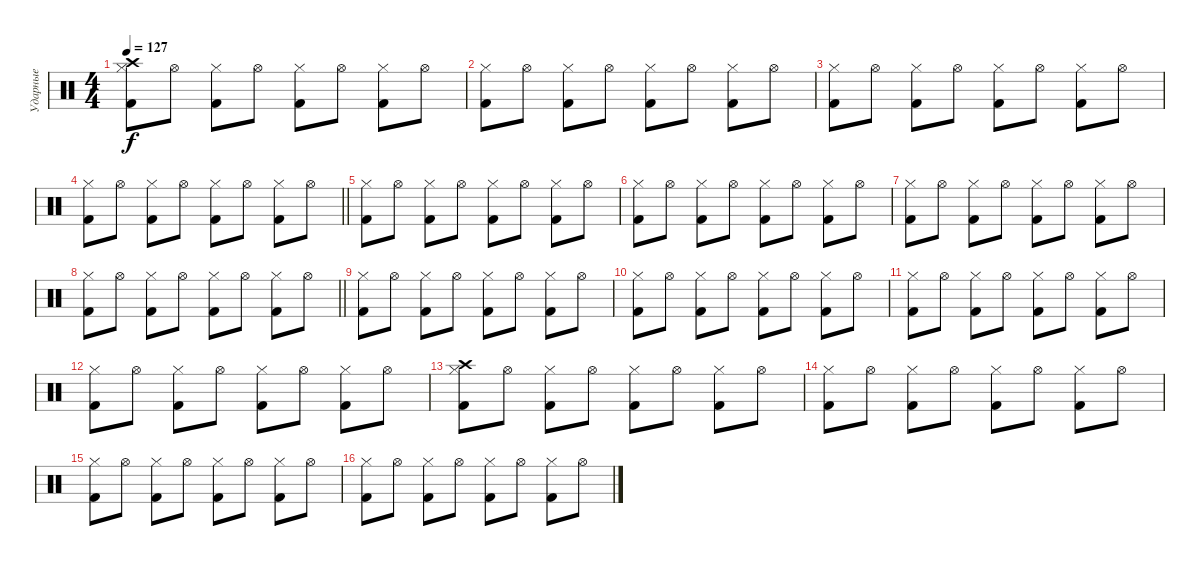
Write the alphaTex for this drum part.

\track ("Ударные" "Ударные") {instrument percussion}
\staff {score}
\articulation defaults
\ts (4 4)
\tempo 127
\clef neutral
\ks c
("Crash high (hit)" "Hi-Hat (closed)" "Kick (hit) 2").8{dy f} "Hi-Hat (open)".8 ("Hi-Hat (closed)" "Kick (hit) 2").8 "Hi-Hat (open)".8 ("Hi-Hat (closed)" "Kick (hit) 2").8 "Hi-Hat (open)".8 ("Hi-Hat (closed)" "Kick (hit) 2").8 "Hi-Hat (open)".8 |
("Hi-Hat (closed)" "Kick (hit) 2").8 "Hi-Hat (open)".8 ("Hi-Hat (closed)" "Kick (hit) 2").8 "Hi-Hat (open)".8 ("Hi-Hat (closed)" "Kick (hit) 2").8 "Hi-Hat (open)".8 ("Hi-Hat (closed)" "Kick (hit) 2").8 "Hi-Hat (open)".8 |
("Hi-Hat (closed)" "Kick (hit) 2").8 "Hi-Hat (open)".8 ("Hi-Hat (closed)" "Kick (hit) 2").8 "Hi-Hat (open)".8 ("Hi-Hat (closed)" "Kick (hit) 2").8 "Hi-Hat (open)".8 ("Hi-Hat (closed)" "Kick (hit) 2").8 "Hi-Hat (open)".8 |
\barLineRight lightlight
("Hi-Hat (closed)" "Kick (hit) 2").8 "Hi-Hat (open)".8 ("Hi-Hat (closed)" "Kick (hit) 2").8 "Hi-Hat (open)".8 ("Hi-Hat (closed)" "Kick (hit) 2").8 "Hi-Hat (open)".8 ("Hi-Hat (closed)" "Kick (hit) 2").8 "Hi-Hat (open)".8 |
("Hi-Hat (closed)" "Kick (hit) 2").8 "Hi-Hat (open)".8 ("Hi-Hat (closed)" "Kick (hit) 2").8 "Hi-Hat (open)".8 ("Hi-Hat (closed)" "Kick (hit) 2").8 "Hi-Hat (open)".8 ("Hi-Hat (closed)" "Kick (hit) 2").8 "Hi-Hat (open)".8 |
("Hi-Hat (closed)" "Kick (hit) 2").8 "Hi-Hat (open)".8 ("Hi-Hat (closed)" "Kick (hit) 2").8 "Hi-Hat (open)".8 ("Hi-Hat (closed)" "Kick (hit) 2").8 "Hi-Hat (open)".8 ("Hi-Hat (closed)" "Kick (hit) 2").8 "Hi-Hat (open)".8 |
("Hi-Hat (closed)" "Kick (hit) 2").8 "Hi-Hat (open)".8 ("Hi-Hat (closed)" "Kick (hit) 2").8 "Hi-Hat (open)".8 ("Hi-Hat (closed)" "Kick (hit) 2").8 "Hi-Hat (open)".8 ("Hi-Hat (closed)" "Kick (hit) 2").8 "Hi-Hat (open)".8 |
\barLineRight lightlight
("Hi-Hat (closed)" "Kick (hit) 2").8 "Hi-Hat (open)".8 ("Hi-Hat (closed)" "Kick (hit) 2").8 "Hi-Hat (open)".8 ("Hi-Hat (closed)" "Kick (hit) 2").8 "Hi-Hat (open)".8 ("Hi-Hat (closed)" "Kick (hit) 2").8 "Hi-Hat (open)".8 |
("Hi-Hat (closed)" "Kick (hit) 2").8 "Hi-Hat (open)".8 ("Hi-Hat (closed)" "Kick (hit) 2").8 "Hi-Hat (open)".8 ("Hi-Hat (closed)" "Kick (hit) 2").8 "Hi-Hat (open)".8 ("Hi-Hat (closed)" "Kick (hit) 2").8 "Hi-Hat (open)".8 |
("Hi-Hat (closed)" "Kick (hit) 2").8 "Hi-Hat (open)".8 ("Hi-Hat (closed)" "Kick (hit) 2").8 "Hi-Hat (open)".8 ("Hi-Hat (closed)" "Kick (hit) 2").8 "Hi-Hat (open)".8 ("Hi-Hat (closed)" "Kick (hit) 2").8 "Hi-Hat (open)".8 |
("Hi-Hat (closed)" "Kick (hit) 2").8 "Hi-Hat (open)".8 ("Hi-Hat (closed)" "Kick (hit) 2").8 "Hi-Hat (open)".8 ("Hi-Hat (closed)" "Kick (hit) 2").8 "Hi-Hat (open)".8 ("Hi-Hat (closed)" "Kick (hit) 2").8 "Hi-Hat (open)".8 |
("Hi-Hat (closed)" "Kick (hit) 2").8 "Hi-Hat (open)".8 ("Hi-Hat (closed)" "Kick (hit) 2").8 "Hi-Hat (open)".8 ("Hi-Hat (closed)" "Kick (hit) 2").8 "Hi-Hat (open)".8 ("Hi-Hat (closed)" "Kick (hit) 2").8 "Hi-Hat (open)".8 |
("Crash high (hit)" "Hi-Hat (closed)" "Kick (hit) 2").8 "Hi-Hat (open)".8 ("Hi-Hat (closed)" "Kick (hit) 2").8 "Hi-Hat (open)".8 ("Hi-Hat (closed)" "Kick (hit) 2").8 "Hi-Hat (open)".8 ("Hi-Hat (closed)" "Kick (hit) 2").8 "Hi-Hat (open)".8 |
("Hi-Hat (closed)" "Kick (hit) 2").8 "Hi-Hat (open)".8 ("Hi-Hat (closed)" "Kick (hit) 2").8 "Hi-Hat (open)".8 ("Hi-Hat (closed)" "Kick (hit) 2").8 "Hi-Hat (open)".8 ("Hi-Hat (closed)" "Kick (hit) 2").8 "Hi-Hat (open)".8 |
("Hi-Hat (closed)" "Kick (hit) 2").8 "Hi-Hat (open)".8 ("Hi-Hat (closed)" "Kick (hit) 2").8 "Hi-Hat (open)".8 ("Hi-Hat (closed)" "Kick (hit) 2").8 "Hi-Hat (open)".8 ("Hi-Hat (closed)" "Kick (hit) 2").8 "Hi-Hat (open)".8 |
("Hi-Hat (closed)" "Kick (hit) 2").8 "Hi-Hat (open)".8 ("Hi-Hat (closed)" "Kick (hit) 2").8 "Hi-Hat (open)".8 ("Hi-Hat (closed)" "Kick (hit) 2").8 "Hi-Hat (open)".8 ("Hi-Hat (closed)" "Kick (hit) 2").8 "Hi-Hat (open)".8
